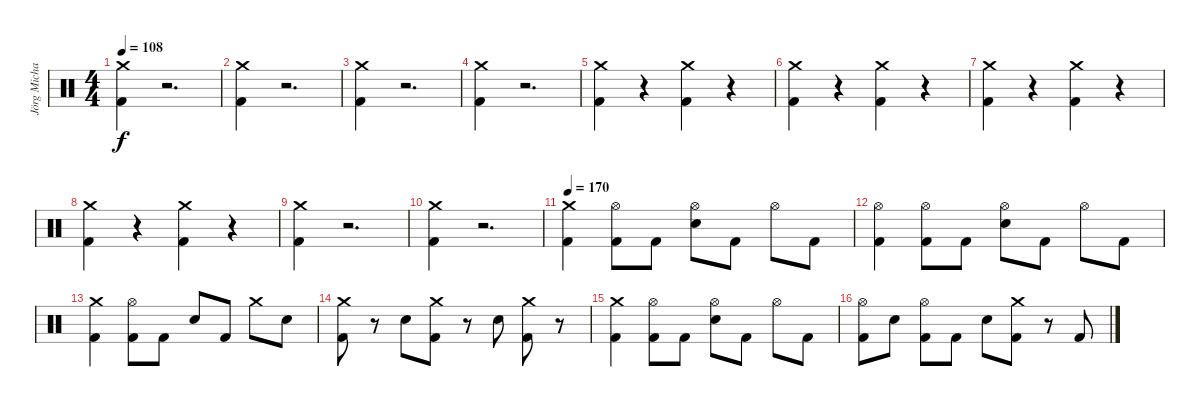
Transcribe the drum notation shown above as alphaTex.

\track ("Jörg Michael" "Jörg Micha") {instrument percussion}
\staff {score}
\articulation defaults
\ts (4 4)
\tempo 108
\clef neutral
\ks c
("Crash medium (hit)" "Kick (hit) 2").4{dy f} r.2{d} |
("Crash medium (hit)" "Kick (hit) 2").4 r.2{d} |
("Crash medium (hit)" "Kick (hit) 2").4 r.2{d} |
("Crash medium (hit)" "Kick (hit) 2").4 r.2{d} |
("Kick (hit) 2" "Crash medium (hit)").4 r.4 ("Kick (hit) 2" "Crash medium (hit)").4 r.4 |
("Kick (hit) 2" "Crash medium (hit)").4 r.4 ("Kick (hit) 2" "Crash medium (hit)").4 r.4 |
("Kick (hit) 2" "Crash medium (hit)").4 r.4 ("Kick (hit) 2" "Crash medium (hit)").4 r.4 |
("Kick (hit) 2" "Crash medium (hit)").4 r.4 ("Kick (hit) 2" "Crash medium (hit)").4 r.4 |
("Crash medium (hit)" "Kick (hit) 2").4 r.2{d} |
("Crash medium (hit)" "Kick (hit) 2").4 r.2{d} |
\tempo 170
("Kick (hit) 2" "Crash medium (hit)").4 ("Kick (hit) 2" "Hi-Hat (open)").8 "Kick (hit) 2".8 ("Snare (hit) 2" "Hi-Hat (open)").8 "Kick (hit) 2".8 "Hi-Hat (open)".8 "Kick (hit) 2".8 |
("Hi-Hat (open)" "Kick (hit) 2").4 ("Kick (hit) 2" "Hi-Hat (open)").8 "Kick (hit) 2".8 ("Snare (hit) 2" "Hi-Hat (open)").8 "Kick (hit) 2".8 "Hi-Hat (open)".8 "Kick (hit) 2".8 |
("Kick (hit) 2" "Crash medium (hit)").4 ("Kick (hit) 2" "Hi-Hat (open)").8 "Kick (hit) 2".8 "Snare (hit) 2".8 "Kick (hit) 2".8 "Crash medium (hit)".8 "Snare (hit) 2".8 |
("Kick (hit) 2" "Crash medium (hit)").8 r.8 "Snare (hit) 2".8 ("Kick (hit) 2" "Crash medium (hit)").8 r.8 "Snare (hit) 2".8 ("Kick (hit) 2" "Crash medium (hit)").8 r.8 |
("Kick (hit) 2" "Crash medium (hit)").4 ("Kick (hit) 2" "Hi-Hat (open)").8 "Kick (hit) 2".8 ("Snare (hit) 2" "Hi-Hat (open)").8 "Kick (hit) 2".8 "Hi-Hat (open)".8 "Kick (hit) 2".8 |
("Kick (hit) 2" "Hi-Hat (open)").8 "Snare (hit) 2".8 ("Hi-Hat (open)" "Kick (hit) 2").8 "Kick (hit) 2".8 "Snare (hit) 2".8 ("Crash medium (hit)" "Kick (hit) 2").8 r.8 "Kick (hit) 2".8
